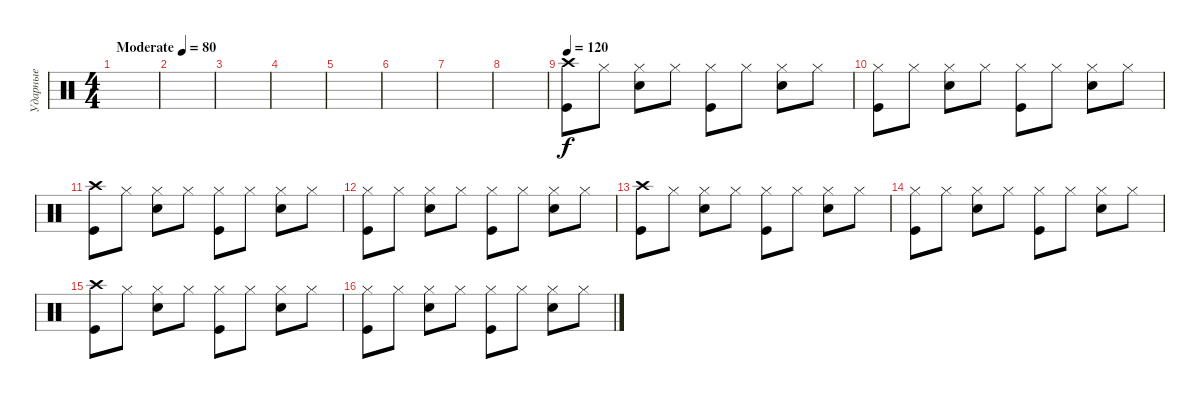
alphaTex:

\track ("Ударные" "Ударные") {instrument percussion}
\staff {score}
\articulation defaults
\ts (4 4)
\tempo (80 "Moderate")
\clef neutral
\ks c
|
|
|
|
|
|
|
|
\tempo 120
("Crash high (hit)" "Kick (hit)").8 "Hi-Hat (closed)".8 ("Hi-Hat (closed)" "Electric Snare (hit)").8 "Hi-Hat (closed)".8 ("Hi-Hat (closed)" "Kick (hit)").8 "Hi-Hat (closed)".8 ("Hi-Hat (closed)" "Electric Snare (hit)").8 "Hi-Hat (closed)".8 |
("Hi-Hat (closed)" "Kick (hit)").8 "Hi-Hat (closed)".8 ("Hi-Hat (closed)" "Electric Snare (hit)").8 "Hi-Hat (closed)".8 ("Hi-Hat (closed)" "Kick (hit)").8 "Hi-Hat (closed)".8 ("Hi-Hat (closed)" "Electric Snare (hit)").8 "Hi-Hat (closed)".8 |
("Crash high (hit)" "Kick (hit)").8 "Hi-Hat (closed)".8 ("Hi-Hat (closed)" "Electric Snare (hit)").8 "Hi-Hat (closed)".8 ("Hi-Hat (closed)" "Kick (hit)").8 "Hi-Hat (closed)".8 ("Hi-Hat (closed)" "Electric Snare (hit)").8 "Hi-Hat (closed)".8 |
("Hi-Hat (closed)" "Kick (hit)").8 "Hi-Hat (closed)".8 ("Hi-Hat (closed)" "Electric Snare (hit)").8 "Hi-Hat (closed)".8 ("Hi-Hat (closed)" "Kick (hit)").8 "Hi-Hat (closed)".8 ("Hi-Hat (closed)" "Electric Snare (hit)").8 "Hi-Hat (closed)".8 |
("Crash high (hit)" "Kick (hit)").8 "Hi-Hat (closed)".8 ("Hi-Hat (closed)" "Electric Snare (hit)").8 "Hi-Hat (closed)".8 ("Hi-Hat (closed)" "Kick (hit)").8 "Hi-Hat (closed)".8 ("Hi-Hat (closed)" "Electric Snare (hit)").8 "Hi-Hat (closed)".8 |
("Hi-Hat (closed)" "Kick (hit)").8 "Hi-Hat (closed)".8 ("Hi-Hat (closed)" "Electric Snare (hit)").8 "Hi-Hat (closed)".8 ("Hi-Hat (closed)" "Kick (hit)").8 "Hi-Hat (closed)".8 ("Hi-Hat (closed)" "Electric Snare (hit)").8 "Hi-Hat (closed)".8 |
("Crash high (hit)" "Kick (hit)").8 "Hi-Hat (closed)".8 ("Hi-Hat (closed)" "Electric Snare (hit)").8 "Hi-Hat (closed)".8 ("Hi-Hat (closed)" "Kick (hit)").8 "Hi-Hat (closed)".8 ("Hi-Hat (closed)" "Electric Snare (hit)").8 "Hi-Hat (closed)".8 |
("Hi-Hat (closed)" "Kick (hit)").8 "Hi-Hat (closed)".8 ("Hi-Hat (closed)" "Electric Snare (hit)").8 "Hi-Hat (closed)".8 ("Hi-Hat (closed)" "Kick (hit)").8 "Hi-Hat (closed)".8 ("Hi-Hat (closed)" "Electric Snare (hit)").8 "Hi-Hat (closed)".8
